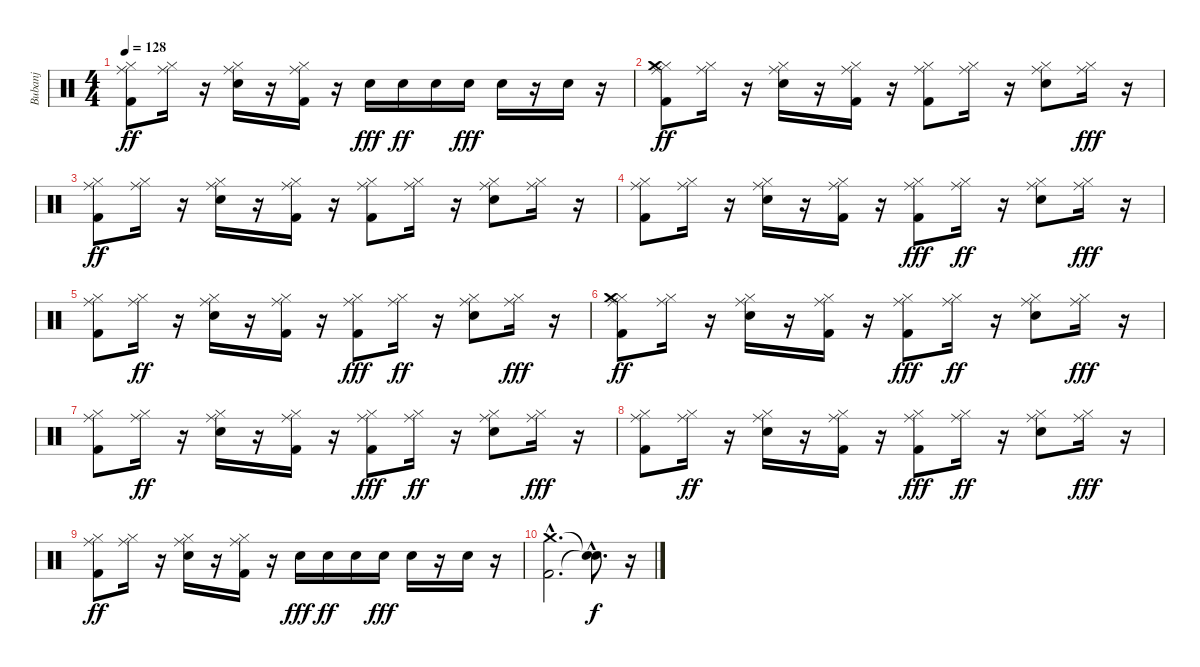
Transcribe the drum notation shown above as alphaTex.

\track ("Bubanj" "Bubanj") {instrument percussion}
\staff {score}
\articulation defaults
\ts (4 4)
\tempo 128
\clef neutral
\ks c
("Kick (hit) 2" "Hi-Hat (closed)" "Ride (middle)").8{dy ff} ("Hi-Hat (closed)" "Ride (middle)").16 r.16 ("Electric Snare (hit)" "Hi-Hat (closed)" "Ride (middle)").16 r.16 ("Kick (hit) 2" "Hi-Hat (closed)" "Ride (middle)").16 r.16 "Electric Snare (hit)".16{dy fff} "Electric Snare (hit)".16{dy ff} "Electric Snare (hit)".16 "Electric Snare (hit)".16{dy fff} "Electric Snare (hit)".16 r.16 "Electric Snare (hit)".16 r.16 |
("Hi-Hat (closed)" "Kick (hit) 2" "Crash medium (hit)" "Ride (middle)").8{dy ff} ("Hi-Hat (closed)" "Ride (middle)").16 r.16 ("Hi-Hat (closed)" "Electric Snare (hit)" "Ride (middle)").16 r.16 ("Kick (hit) 2" "Hi-Hat (closed)" "Ride (middle)").16 r.16 ("Hi-Hat (closed)" "Kick (hit) 2" "Ride (middle)").8 ("Hi-Hat (closed)" "Ride (middle)").16 r.16 ("Hi-Hat (closed)" "Electric Snare (hit)" "Ride (middle)").8 ("Hi-Hat (closed)" "Ride (middle)").16{dy fff} r.16 |
("Hi-Hat (closed)" "Kick (hit) 2" "Ride (middle)").8{dy ff} ("Hi-Hat (closed)" "Ride (middle)").16 r.16 ("Hi-Hat (closed)" "Electric Snare (hit)" "Ride (middle)").16 r.16 ("Kick (hit) 2" "Hi-Hat (closed)" "Ride (middle)").16 r.16 ("Hi-Hat (closed)" "Kick (hit) 2" "Ride (middle)").8 ("Hi-Hat (closed)" "Ride (middle)").16 r.16 ("Hi-Hat (closed)" "Electric Snare (hit)" "Ride (middle)").8 ("Hi-Hat (closed)" "Ride (middle)").16 r.16 |
("Hi-Hat (closed)" "Kick (hit) 2" "Ride (middle)").8 ("Hi-Hat (closed)" "Ride (middle)").16 r.16 ("Hi-Hat (closed)" "Electric Snare (hit)" "Ride (middle)").16 r.16 ("Kick (hit) 2" "Hi-Hat (closed)" "Ride (middle)").16 r.16 ("Hi-Hat (closed)" "Kick (hit) 2" "Ride (middle)").8{dy fff} ("Hi-Hat (closed)" "Ride (middle)").16{dy ff} r.16 ("Hi-Hat (closed)" "Electric Snare (hit)" "Ride (middle)").8 ("Hi-Hat (closed)" "Ride (middle)").16{dy fff} r.16 |
("Hi-Hat (closed)" "Kick (hit) 2" "Ride (middle)").8 ("Hi-Hat (closed)" "Ride (middle)").16{dy ff} r.16 ("Hi-Hat (closed)" "Electric Snare (hit)" "Ride (middle)").16 r.16 ("Kick (hit) 2" "Hi-Hat (closed)" "Ride (middle)").16 r.16 ("Hi-Hat (closed)" "Kick (hit) 2" "Ride (middle)").8{dy fff} ("Hi-Hat (closed)" "Ride (middle)").16{dy ff} r.16 ("Hi-Hat (closed)" "Electric Snare (hit)" "Ride (middle)").8 ("Hi-Hat (closed)" "Ride (middle)").16{dy fff} r.16 |
("Hi-Hat (closed)" "Kick (hit) 2" "Crash medium (hit)" "Ride (middle)").8{dy ff} ("Hi-Hat (closed)" "Ride (middle)").16 r.16 ("Hi-Hat (closed)" "Electric Snare (hit)" "Ride (middle)").16 r.16 ("Kick (hit) 2" "Hi-Hat (closed)" "Ride (middle)").16 r.16 ("Hi-Hat (closed)" "Kick (hit) 2" "Ride (middle)").8{dy fff} ("Hi-Hat (closed)" "Ride (middle)").16{dy ff} r.16 ("Hi-Hat (closed)" "Electric Snare (hit)" "Ride (middle)").8 ("Hi-Hat (closed)" "Ride (middle)").16{dy fff} r.16 |
("Hi-Hat (closed)" "Kick (hit) 2" "Ride (middle)").8 ("Hi-Hat (closed)" "Ride (middle)").16{dy ff} r.16 ("Hi-Hat (closed)" "Electric Snare (hit)" "Ride (middle)").16 r.16 ("Kick (hit) 2" "Hi-Hat (closed)" "Ride (middle)").16 r.16 ("Hi-Hat (closed)" "Kick (hit) 2" "Ride (middle)").8{dy fff} ("Hi-Hat (closed)" "Ride (middle)").16{dy ff} r.16 ("Hi-Hat (closed)" "Electric Snare (hit)" "Ride (middle)").8 ("Hi-Hat (closed)" "Ride (middle)").16{dy fff} r.16 |
("Hi-Hat (closed)" "Kick (hit) 2" "Ride (middle)").8 ("Hi-Hat (closed)" "Ride (middle)").16{dy ff} r.16 ("Hi-Hat (closed)" "Electric Snare (hit)" "Ride (middle)").16 r.16 ("Kick (hit) 2" "Hi-Hat (closed)" "Ride (middle)").16 r.16 ("Hi-Hat (closed)" "Kick (hit) 2" "Ride (middle)").8{dy fff} ("Hi-Hat (closed)" "Ride (middle)").16{dy ff} r.16 ("Hi-Hat (closed)" "Electric Snare (hit)" "Ride (middle)").8 ("Hi-Hat (closed)" "Ride (middle)").16{dy fff} r.16 |
("Kick (hit) 2" "Hi-Hat (closed)" "Ride (middle)").8{dy ff} ("Hi-Hat (closed)" "Ride (middle)").16 r.16 ("Electric Snare (hit)" "Hi-Hat (closed)" "Ride (middle)").16 r.16 ("Kick (hit) 2" "Hi-Hat (closed)" "Ride (middle)").16 r.16 "Electric Snare (hit)".16{dy fff} "Electric Snare (hit)".16{dy ff} "Electric Snare (hit)".16 "Electric Snare (hit)".16{dy fff} "Electric Snare (hit)".16 r.16 "Electric Snare (hit)".16 r.16 |
("Crash medium (hit)"{hac} "Kick (hit) 2"{hac}).2{d} ("Snare (hit)"{hac t} "Snare (hit)"{hac t}).8{d dy f} r.16
